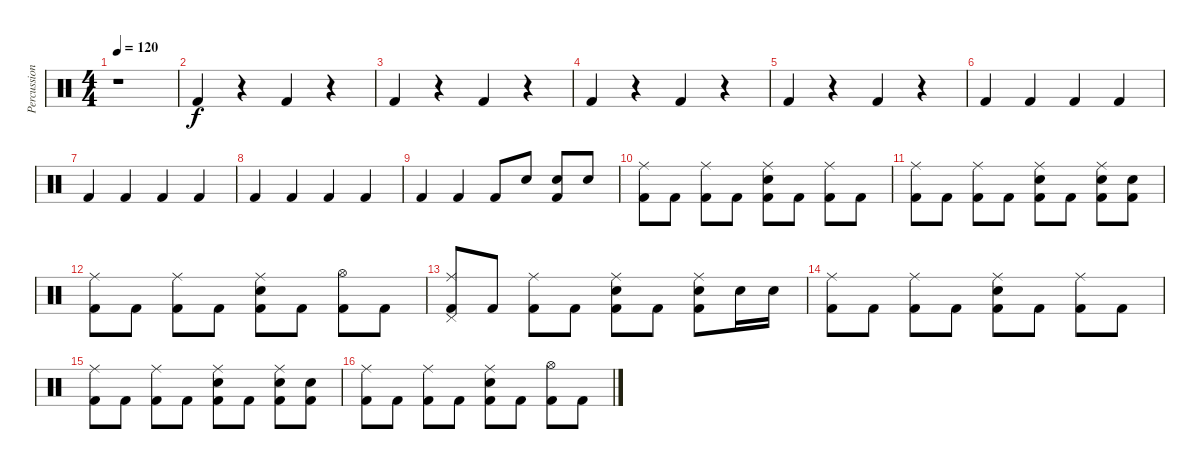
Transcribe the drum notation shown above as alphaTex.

\track ("Percussion" "Percussion") {instrument percussion}
\staff {score}
\articulation defaults
\ts (4 4)
\tempo 120
\clef neutral
\ks c
r.1{dy f} |
"Kick (hit) 2".4 r.4 "Kick (hit) 2".4 r.4 |
"Kick (hit) 2".4 r.4 "Kick (hit) 2".4 r.4 |
"Kick (hit) 2".4 r.4 "Kick (hit) 2".4 r.4 |
"Kick (hit) 2".4 r.4 "Kick (hit) 2".4 r.4 |
"Kick (hit) 2".4 "Kick (hit) 2".4 "Kick (hit) 2".4 "Kick (hit) 2".4 |
"Kick (hit) 2".4 "Kick (hit) 2".4 "Kick (hit) 2".4 "Kick (hit) 2".4 |
"Kick (hit) 2".4 "Kick (hit) 2".4 "Kick (hit) 2".4 "Kick (hit) 2".4 |
"Kick (hit) 2".4 "Kick (hit) 2".4 "Kick (hit) 2".8 "Snare (hit) 2".8 ("Snare (hit) 2" "Kick (hit) 2").8 "Snare (hit) 2".8 |
("Ride (middle)" "Kick (hit) 2").8 "Kick (hit) 2".8 ("Ride (middle)" "Kick (hit) 2").8 "Kick (hit) 2".8 ("Ride (middle)" "Snare (hit) 2" "Kick (hit) 2").8 "Kick (hit) 2".8 ("Ride (middle)" "Kick (hit) 2").8 "Kick (hit) 2".8 |
("Ride (middle)" "Kick (hit) 2").8 "Kick (hit) 2".8 ("Ride (middle)" "Kick (hit) 2").8 "Kick (hit) 2".8 ("Ride (middle)" "Snare (hit) 2" "Kick (hit) 2").8 "Kick (hit) 2".8 ("Ride (middle)" "Snare (hit) 2" "Kick (hit) 2").8 ("Snare (hit) 2" "Kick (hit) 2").8 |
("Ride (middle)" "Kick (hit) 2").8 "Kick (hit) 2".8 ("Ride (middle)" "Kick (hit) 2").8 "Kick (hit) 2".8 ("Ride (middle)" "Snare (hit) 2" "Kick (hit) 2").8 "Kick (hit) 2".8 ("Hi-Hat (open)" "Kick (hit) 2").8 "Kick (hit) 2".8 |
("Ride (middle)" "Pedal Hi-Hat (hit)" "Kick (hit) 2").8 "Kick (hit) 2".8 ("Ride (middle)" "Kick (hit) 2").8 "Kick (hit) 2".8 ("Ride (middle)" "Snare (hit) 2" "Kick (hit) 2").8 "Kick (hit) 2".8 ("Ride (middle)" "Snare (hit) 2" "Kick (hit) 2").8 "Snare (hit) 2".16 "Snare (hit) 2".16 |
("Ride (middle)" "Kick (hit) 2").8 "Kick (hit) 2".8 ("Ride (middle)" "Kick (hit) 2").8 "Kick (hit) 2".8 ("Ride (middle)" "Snare (hit) 2" "Kick (hit) 2").8 "Kick (hit) 2".8 ("Ride (middle)" "Kick (hit) 2").8 "Kick (hit) 2".8 |
("Ride (middle)" "Kick (hit) 2").8 "Kick (hit) 2".8 ("Ride (middle)" "Kick (hit) 2").8 "Kick (hit) 2".8 ("Ride (middle)" "Snare (hit) 2" "Kick (hit) 2").8 "Kick (hit) 2".8 ("Ride (middle)" "Snare (hit) 2" "Kick (hit) 2").8 ("Snare (hit) 2" "Kick (hit) 2").8 |
("Ride (middle)" "Kick (hit) 2").8 "Kick (hit) 2".8 ("Ride (middle)" "Kick (hit) 2").8 "Kick (hit) 2".8 ("Ride (middle)" "Snare (hit) 2" "Kick (hit) 2").8 "Kick (hit) 2".8 ("Hi-Hat (open)" "Kick (hit) 2").8 "Kick (hit) 2".8
